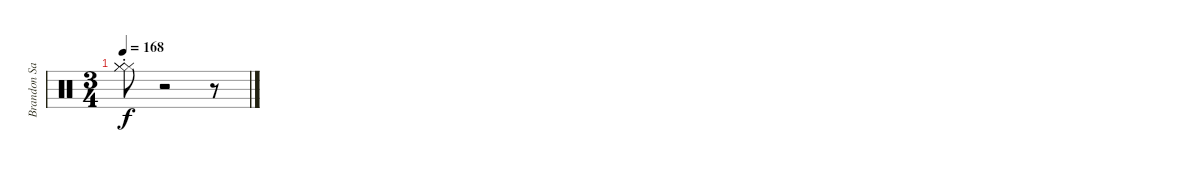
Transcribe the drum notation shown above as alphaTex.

\track ("Brandon Saller" "Brandon Sa") {instrument percussion}
\staff {score}
\articulation defaults
\ts (3 4)
\tempo 168
\clef neutral
\ks c
("Hi-Hat (closed)"{st} "Hi-Hat (closed)"{st} "Hi-Hat (closed)"{st}).8{dy f} r.2 r.8
